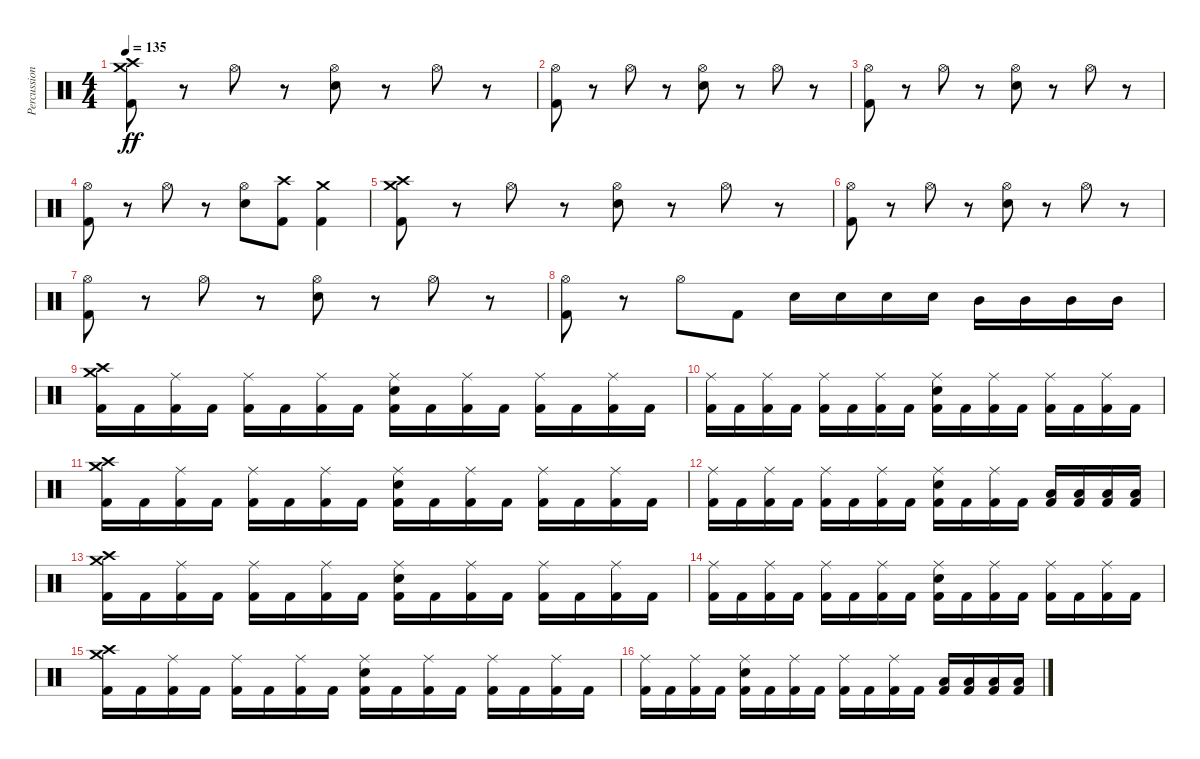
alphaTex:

\track ("Percussion" "Percussion") {instrument percussion}
\staff {score}
\articulation defaults
\ts (4 4)
\tempo 135
\clef neutral
\ks c
("Kick (hit) 2" "Crash medium (hit)" "Crash high (hit)").8{dy ff} r.8 "Hi-Hat (open)".8 r.8 ("Electric Snare (hit)" "Hi-Hat (open)").8 r.8 "Hi-Hat (open)".8 r.8 |
("Kick (hit) 2" "Hi-Hat (open)").8 r.8 "Hi-Hat (open)".8 r.8 ("Electric Snare (hit)" "Hi-Hat (open)").8 r.8 "Hi-Hat (open)".8 r.8 |
("Kick (hit) 2" "Hi-Hat (open)").8 r.8 "Hi-Hat (open)".8 r.8 ("Electric Snare (hit)" "Hi-Hat (open)").8 r.8 "Hi-Hat (open)".8 r.8 |
("Kick (hit) 2" "Hi-Hat (open)").8 r.8 "Hi-Hat (open)".8 r.8 ("Electric Snare (hit)" "Hi-Hat (open)").8 ("Kick (hit) 2" "Crash high (hit)").8 ("Kick (hit) 2" "Crash medium (hit)").4 |
("Kick (hit) 2" "Crash medium (hit)" "Crash high (hit)").8 r.8 "Hi-Hat (open)".8 r.8 ("Electric Snare (hit)" "Hi-Hat (open)").8 r.8 "Hi-Hat (open)".8 r.8 |
("Kick (hit) 2" "Hi-Hat (open)").8 r.8 "Hi-Hat (open)".8 r.8 ("Electric Snare (hit)" "Hi-Hat (open)").8 r.8 "Hi-Hat (open)".8 r.8 |
("Kick (hit) 2" "Hi-Hat (open)").8 r.8 "Hi-Hat (open)".8 r.8 ("Electric Snare (hit)" "Hi-Hat (open)").8 r.8 "Hi-Hat (open)".8 r.8 |
("Kick (hit) 2" "Hi-Hat (open)").8 r.8 "Hi-Hat (open)".8 "Kick (hit) 2".8 "Electric Snare (hit)".16 "Electric Snare (hit)".16 "Electric Snare (hit)".16 "Electric Snare (hit)".16 "Mid Tom (hit)".16 "Mid Tom (hit)".16 "Mid Tom (hit)".16 "Mid Tom (hit)".16 |
("Kick (hit) 2" "Crash medium (hit)" "Crash high (hit)").16 "Kick (hit) 2".16 ("Kick (hit) 2" "Ride (middle)").16 "Kick (hit) 2".16 ("Kick (hit) 2" "Ride (middle)").16 "Kick (hit) 2".16 ("Kick (hit) 2" "Ride (middle)").16 "Kick (hit) 2".16 ("Kick (hit) 2" "Electric Snare (hit)" "Ride (middle)").16 "Kick (hit) 2".16 ("Kick (hit) 2" "Ride (middle)").16 "Kick (hit) 2".16 ("Kick (hit) 2" "Ride (middle)").16 "Kick (hit) 2".16 ("Kick (hit) 2" "Ride (middle)").16 "Kick (hit) 2".16 |
("Kick (hit) 2" "Ride (middle)").16 "Kick (hit) 2".16 ("Kick (hit) 2" "Ride (middle)").16 "Kick (hit) 2".16 ("Kick (hit) 2" "Ride (middle)").16 "Kick (hit) 2".16 ("Kick (hit) 2" "Ride (middle)").16 "Kick (hit) 2".16 ("Kick (hit) 2" "Electric Snare (hit)" "Ride (middle)").16 "Kick (hit) 2".16 ("Kick (hit) 2" "Ride (middle)").16 "Kick (hit) 2".16 ("Kick (hit) 2" "Ride (middle)").16 "Kick (hit) 2".16 ("Kick (hit) 2" "Ride (middle)").16 "Kick (hit) 2".16 |
("Kick (hit) 2" "Crash medium (hit)" "Crash high (hit)").16 "Kick (hit) 2".16 ("Kick (hit) 2" "Ride (middle)").16 "Kick (hit) 2".16 ("Kick (hit) 2" "Ride (middle)").16 "Kick (hit) 2".16 ("Kick (hit) 2" "Ride (middle)").16 "Kick (hit) 2".16 ("Kick (hit) 2" "Electric Snare (hit)" "Ride (middle)").16 "Kick (hit) 2".16 ("Kick (hit) 2" "Ride (middle)").16 "Kick (hit) 2".16 ("Kick (hit) 2" "Ride (middle)").16 "Kick (hit) 2".16 ("Kick (hit) 2" "Ride (middle)").16 "Kick (hit) 2".16 |
("Kick (hit) 2" "Ride (middle)").16 "Kick (hit) 2".16 ("Kick (hit) 2" "Ride (middle)").16 "Kick (hit) 2".16 ("Kick (hit) 2" "Ride (middle)").16 "Kick (hit) 2".16 ("Kick (hit) 2" "Ride (middle)").16 "Kick (hit) 2".16 ("Kick (hit) 2" "Electric Snare (hit)" "Ride (middle)").16 "Kick (hit) 2".16 ("Kick (hit) 2" "Ride (middle)").16 "Kick (hit) 2".16 ("Kick (hit) 2" "Low Tom (hit)").16 ("Kick (hit) 2" "Low Tom (hit)").16 ("Kick (hit) 2" "Low Tom (hit)").16 ("Kick (hit) 2" "Low Tom (hit)").16 |
("Kick (hit) 2" "Crash medium (hit)" "Crash high (hit)").16 "Kick (hit) 2".16 ("Kick (hit) 2" "Ride (middle)").16 "Kick (hit) 2".16 ("Kick (hit) 2" "Ride (middle)").16 "Kick (hit) 2".16 ("Kick (hit) 2" "Ride (middle)").16 "Kick (hit) 2".16 ("Kick (hit) 2" "Electric Snare (hit)" "Ride (middle)").16 "Kick (hit) 2".16 ("Kick (hit) 2" "Ride (middle)").16 "Kick (hit) 2".16 ("Kick (hit) 2" "Ride (middle)").16 "Kick (hit) 2".16 ("Kick (hit) 2" "Ride (middle)").16 "Kick (hit) 2".16 |
("Kick (hit) 2" "Ride (middle)").16 "Kick (hit) 2".16 ("Kick (hit) 2" "Ride (middle)").16 "Kick (hit) 2".16 ("Kick (hit) 2" "Ride (middle)").16 "Kick (hit) 2".16 ("Kick (hit) 2" "Ride (middle)").16 "Kick (hit) 2".16 ("Kick (hit) 2" "Electric Snare (hit)" "Ride (middle)").16 "Kick (hit) 2".16 ("Kick (hit) 2" "Ride (middle)").16 "Kick (hit) 2".16 ("Kick (hit) 2" "Ride (middle)").16 "Kick (hit) 2".16 ("Kick (hit) 2" "Ride (middle)").16 "Kick (hit) 2".16 |
("Kick (hit) 2" "Crash medium (hit)" "Crash high (hit)").16 "Kick (hit) 2".16 ("Kick (hit) 2" "Ride (middle)").16 "Kick (hit) 2".16 ("Kick (hit) 2" "Ride (middle)").16 "Kick (hit) 2".16 ("Kick (hit) 2" "Ride (middle)").16 "Kick (hit) 2".16 ("Kick (hit) 2" "Electric Snare (hit)" "Ride (middle)").16 "Kick (hit) 2".16 ("Kick (hit) 2" "Ride (middle)").16 "Kick (hit) 2".16 ("Kick (hit) 2" "Ride (middle)").16 "Kick (hit) 2".16 ("Kick (hit) 2" "Ride (middle)").16 "Kick (hit) 2".16 |
("Kick (hit) 2" "Ride (middle)").16 "Kick (hit) 2".16 ("Kick (hit) 2" "Ride (middle)").16 "Kick (hit) 2".16 ("Kick (hit) 2" "Electric Snare (hit)" "Ride (middle)").16 "Kick (hit) 2".16 ("Kick (hit) 2" "Ride (middle)").16 "Kick (hit) 2".16 ("Kick (hit) 2" "Ride (middle)").16 "Kick (hit) 2".16 ("Kick (hit) 2" "Ride (middle)").16 "Kick (hit) 2".16 ("Kick (hit) 2" "Low Tom (hit)").16 ("Kick (hit) 2" "Low Tom (hit)").16 ("Kick (hit) 2" "Low Tom (hit)").16 ("Kick (hit) 2" "Low Tom (hit)").16
